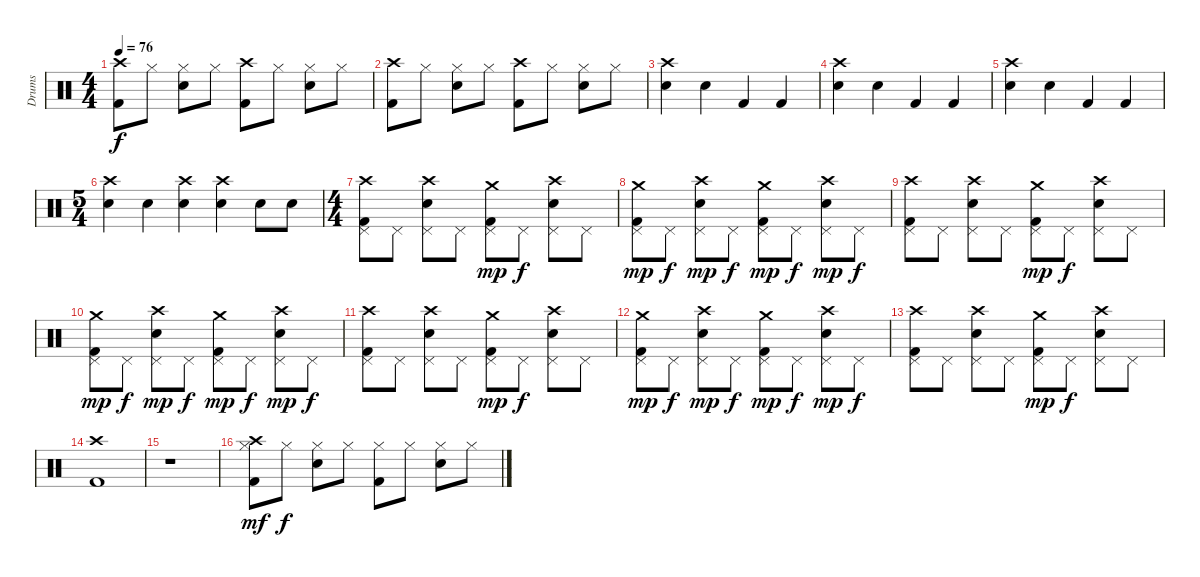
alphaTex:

\track ("Drums" "Drums") {instrument percussion}
\staff {score}
\articulation defaults
\ts (4 4)
\tempo 76
\clef neutral
\ks c
("Crash high (hit)" "Kick (hit) 2").8{dy f} "Hi-Hat (closed)".8 ("Hi-Hat (closed)" "Snare (hit) 2").8 "Hi-Hat (closed)".8 ("Crash high (hit)" "Kick (hit) 2").8 "Hi-Hat (closed)".8 ("Hi-Hat (closed)" "Snare (hit) 2").8 "Hi-Hat (closed)".8 |
("Crash high (hit)" "Kick (hit) 2").8 "Hi-Hat (closed)".8 ("Hi-Hat (closed)" "Snare (hit) 2").8 "Hi-Hat (closed)".8 ("Crash high (hit)" "Kick (hit) 2").8 "Hi-Hat (closed)".8 ("Hi-Hat (closed)" "Snare (hit) 2").8 "Hi-Hat (closed)".8 |
("Crash high (hit)" "Snare (hit) 2").4 "Snare (hit) 2".4 "Kick (hit) 2".4 "Kick (hit) 2".4 |
("Crash high (hit)" "Snare (hit) 2").4 "Snare (hit) 2".4 "Kick (hit) 2".4 "Kick (hit) 2".4 |
("Crash high (hit)" "Snare (hit) 2").4 "Snare (hit) 2".4 "Kick (hit) 2".4 "Kick (hit) 2".4 |
\ts (5 4)
("Crash high (hit)" "Snare (hit) 2").4 "Snare (hit) 2".4 ("Crash high (hit)" "Snare (hit) 2").4 ("Crash high (hit)" "Snare (hit) 2").4 "Snare (hit) 2".8 "Snare (hit) 2".8 |
\ts (4 4)
("Crash high (hit)" "Pedal Hi-Hat (hit)" "Kick (hit) 2").8 "Pedal Hi-Hat (hit)".8 ("Crash high (hit)" "Pedal Hi-Hat (hit)" "Snare (hit) 2").8 "Pedal Hi-Hat (hit)".8 ("Crash medium (hit)" "Pedal Hi-Hat (hit)" "Kick (hit) 2").8{dy mp} "Pedal Hi-Hat (hit)".8{dy f} ("Crash high (hit)" "Pedal Hi-Hat (hit)" "Snare (hit) 2").8 "Pedal Hi-Hat (hit)".8 |
("Crash medium (hit)" "Pedal Hi-Hat (hit)" "Kick (hit) 2").8{dy mp} "Pedal Hi-Hat (hit)".8{dy f} ("Crash high (hit)" "Pedal Hi-Hat (hit)" "Snare (hit) 2").8{dy mp} "Pedal Hi-Hat (hit)".8{dy f} ("Crash medium (hit)" "Pedal Hi-Hat (hit)" "Kick (hit) 2").8{dy mp} "Pedal Hi-Hat (hit)".8{dy f} ("Crash high (hit)" "Pedal Hi-Hat (hit)" "Snare (hit) 2").8{dy mp} "Pedal Hi-Hat (hit)".8{dy f} |
("Crash high (hit)" "Pedal Hi-Hat (hit)" "Kick (hit) 2").8 "Pedal Hi-Hat (hit)".8 ("Crash high (hit)" "Pedal Hi-Hat (hit)" "Snare (hit) 2").8 "Pedal Hi-Hat (hit)".8 ("Crash medium (hit)" "Pedal Hi-Hat (hit)" "Kick (hit) 2").8{dy mp} "Pedal Hi-Hat (hit)".8{dy f} ("Crash high (hit)" "Pedal Hi-Hat (hit)" "Snare (hit) 2").8 "Pedal Hi-Hat (hit)".8 |
("Crash medium (hit)" "Pedal Hi-Hat (hit)" "Kick (hit) 2").8{dy mp} "Pedal Hi-Hat (hit)".8{dy f} ("Crash high (hit)" "Pedal Hi-Hat (hit)" "Snare (hit) 2").8{dy mp} "Pedal Hi-Hat (hit)".8{dy f} ("Crash medium (hit)" "Pedal Hi-Hat (hit)" "Kick (hit) 2").8{dy mp} "Pedal Hi-Hat (hit)".8{dy f} ("Crash high (hit)" "Pedal Hi-Hat (hit)" "Snare (hit) 2").8{dy mp} "Pedal Hi-Hat (hit)".8{dy f} |
("Crash high (hit)" "Pedal Hi-Hat (hit)" "Kick (hit) 2").8 "Pedal Hi-Hat (hit)".8 ("Crash high (hit)" "Pedal Hi-Hat (hit)" "Snare (hit) 2").8 "Pedal Hi-Hat (hit)".8 ("Crash medium (hit)" "Pedal Hi-Hat (hit)" "Kick (hit) 2").8{dy mp} "Pedal Hi-Hat (hit)".8{dy f} ("Crash high (hit)" "Pedal Hi-Hat (hit)" "Snare (hit) 2").8 "Pedal Hi-Hat (hit)".8 |
("Crash medium (hit)" "Pedal Hi-Hat (hit)" "Kick (hit) 2").8{dy mp} "Pedal Hi-Hat (hit)".8{dy f} ("Crash high (hit)" "Pedal Hi-Hat (hit)" "Snare (hit) 2").8{dy mp} "Pedal Hi-Hat (hit)".8{dy f} ("Crash medium (hit)" "Pedal Hi-Hat (hit)" "Kick (hit) 2").8{dy mp} "Pedal Hi-Hat (hit)".8{dy f} ("Crash high (hit)" "Pedal Hi-Hat (hit)" "Snare (hit) 2").8{dy mp} "Pedal Hi-Hat (hit)".8{dy f} |
("Crash high (hit)" "Pedal Hi-Hat (hit)" "Kick (hit) 2").8 "Pedal Hi-Hat (hit)".8 ("Crash high (hit)" "Pedal Hi-Hat (hit)" "Snare (hit) 2").8 "Pedal Hi-Hat (hit)".8 ("Crash medium (hit)" "Pedal Hi-Hat (hit)" "Kick (hit) 2").8{dy mp} "Pedal Hi-Hat (hit)".8{dy f} ("Crash high (hit)" "Pedal Hi-Hat (hit)" "Snare (hit) 2").8 "Pedal Hi-Hat (hit)".8 |
("Crash high (hit)" "Kick (hit) 2").1 |
r.1 |
("Crash high (hit)" "Hi-Hat (closed)" "Kick (hit) 2").8{dy mf} "Hi-Hat (closed)".8{dy f} ("Hi-Hat (closed)" "Snare (hit) 2").8 "Hi-Hat (closed)".8 ("Hi-Hat (closed)" "Kick (hit) 2").8 "Hi-Hat (closed)".8 ("Hi-Hat (closed)" "Snare (hit) 2").8 "Hi-Hat (closed)".8
